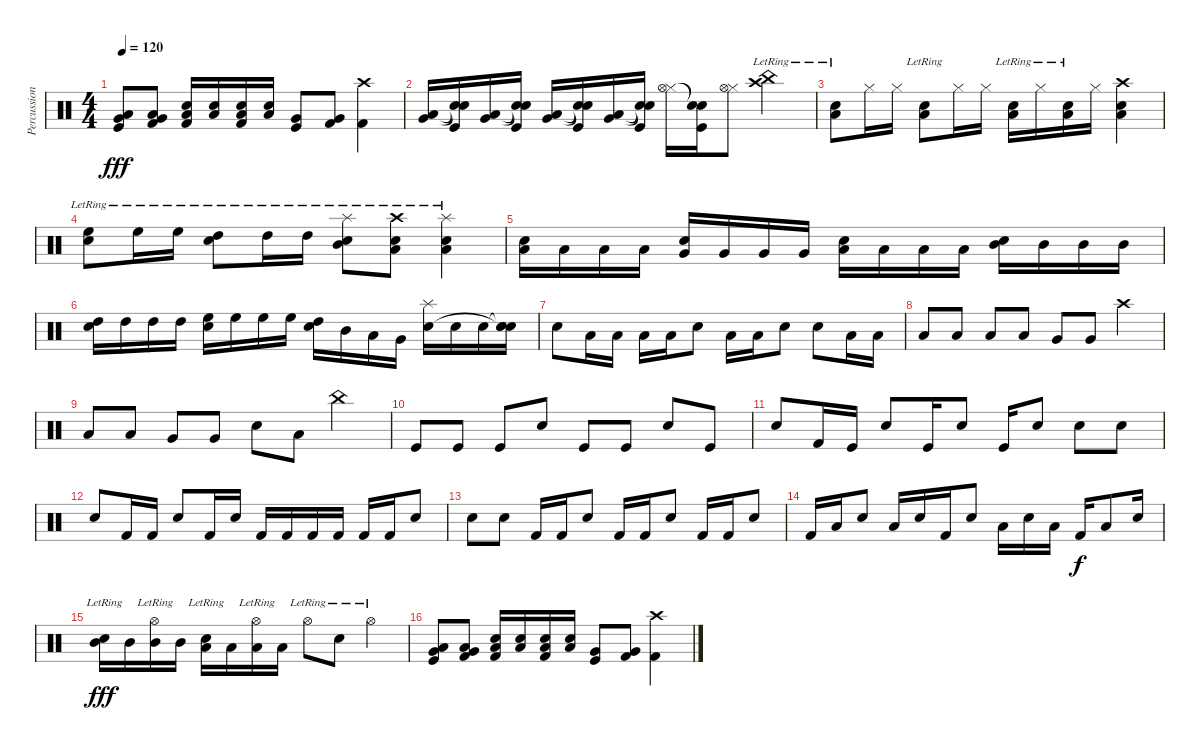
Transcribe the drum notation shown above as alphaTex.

\track ("Percussion" "Percussion") {instrument percussion}
\staff {score}
\articulation defaults
\ts (4 4)
\tempo 120
\clef neutral
\ks c
("Low Floor Tom (hit)" "Very Low Tom (hit)" "Kick (hit)").8{dy fff} ("Low Floor Tom (hit)" "Very Low Tom (hit)" "Kick (hit) 2").8 ("Low Tom (hit)" "Snare (hit) 2" "Kick (hit) 2").16 ("Low Tom (hit)" "Snare (hit) 2").16 ("Low Tom (hit)" "Snare (hit) 2" "Kick (hit) 2").16 ("Low Tom (hit)" "Snare (hit) 2").16 ("Very Low Tom (hit)" "Kick (hit)").8 ("Very Low Tom (hit)" "Kick (hit) 2").8 ("Crash high (hit)" "Kick (hit) 2").4 |
("Low Floor Tom (hit)" "Very Low Tom (hit)").16 ("Snare (hit)"{t} "Snare (hit)"{t} "Kick (hit)").16 ("Low Floor Tom (hit)" "Very Low Tom (hit)").16 ("Snare (hit)"{t} "Snare (hit)"{t} "Kick (hit)").16 ("Low Floor Tom (hit)" "Very Low Tom (hit)").16 ("Snare (hit)"{t} "Snare (hit)"{t} "Kick (hit)").16 ("Low Floor Tom (hit)" "Very Low Tom (hit)").16 ("Snare (hit)"{t} "Snare (hit)"{t} "Kick (hit)").16 ("Hi-Hat (closed)" "Hi-Hat (open)").16 ("Snare (hit)"{t} "Snare (hit)"{t} "Kick (hit)").16 ("Hi-Hat (closed)" "Hi-Hat (open)").8 ("Crash high (hit)"{lr} "China (hit)"{lr}).4 |
("Low Tom (hit)"{lr} "Snare (hit) 2").8 "Hi-Hat (closed)".16 "Hi-Hat (closed)".16 ("Low Tom (hit)"{lr} "Snare (hit) 2").8 "Hi-Hat (closed)".16 "Hi-Hat (closed)".16 ("Low Tom (hit)"{lr} "Snare (hit) 2").16 "Hi-Hat (closed)"{lr}.16 ("Low Tom (hit)"{lr} "Snare (hit) 2").16 "Hi-Hat (closed)".16 ("Crash high (hit)" "Low Tom (hit)" "Snare (hit) 2").4 |
("High Floor Tom (hit)"{lr} "Snare (hit) 2").8 "High Floor Tom (hit)"{lr}.16 "High Floor Tom (hit)"{lr}.16 ("High Tom (hit)"{lr} "Snare (hit) 2").8 "High Tom (hit)"{lr}.16 "High Tom (hit)"{lr}.16 ("Splash (hit)" "Mid Tom (hit)"{lr} "Snare (hit) 2").8 ("Crash high (hit)" "Low Tom (hit)"{lr} "Snare (hit) 2").8 ("Splash (hit)" "Low Floor Tom (hit)"{lr} "Snare (hit) 2").4 |
("Low Floor Tom (hit)" "Snare (hit) 2").16 "Low Floor Tom (hit)".16 "Low Floor Tom (hit)".16 "Low Floor Tom (hit)".16 ("Very Low Tom (hit)" "Snare (hit) 2").16 "Very Low Tom (hit)".16 "Very Low Tom (hit)".16 "Very Low Tom (hit)".16 ("Low Tom (hit)" "Snare (hit) 2").16 "Low Tom (hit)".16 "Low Tom (hit)".16 "Low Tom (hit)".16 ("Mid Tom (hit)" "Snare (hit) 2").16 "Mid Tom (hit)".16 "Mid Tom (hit)".16 "Mid Tom (hit)".16 |
("High Tom (hit)" "Snare (hit) 2").16 "High Tom (hit)".16 "High Tom (hit)".16 "High Tom (hit)".16 ("High Floor Tom (hit)" "Snare (hit) 2").16 "High Floor Tom (hit)".16 "High Floor Tom (hit)".16 "High Floor Tom (hit)".16 ("High Tom (hit)" "Snare (hit) 2").16 "Mid Tom (hit)".16 "Low Tom (hit)".16 "Very Low Tom (hit)".16 ("Splash (hit)" "Snare (hit) 2").16 "Snare (hit) 2".16 "Snare (hit) 2".16 ("Snare (hit)"{t} "Snare (hit)"{t} "Snare (hit) 2").16 |
"Snare (hit) 2".8 "Low Tom (hit)".16 "Low Tom (hit)".16 "Low Tom (hit)".16 "Low Tom (hit)".16 "Snare (hit) 2".8 "Low Tom (hit)".16 "Low Tom (hit)".16 "Snare (hit) 2".8 "Snare (hit) 2".8 "Low Tom (hit)".16 "Low Tom (hit)".16 |
"Low Floor Tom (hit)".8 "Low Floor Tom (hit)".8 "Low Floor Tom (hit)".8 "Low Floor Tom (hit)".8 "Very Low Tom (hit)".8 "Very Low Tom (hit)".8 "Crash high (hit)".4 |
"Low Tom (hit)".8 "Low Tom (hit)".8 "Very Low Tom (hit)".8 "Very Low Tom (hit)".8 "Snare (hit) 2".8 "Low Floor Tom (hit)".8 "China (hit)".4 |
"Kick (hit)".8 "Kick (hit)".8 "Kick (hit)".8 "Snare (hit) 2".8 "Kick (hit)".8 "Kick (hit)".8 "Snare (hit) 2".8 "Kick (hit)".8 |
"Snare (hit) 2".8 "Kick (hit) 2".16 "Kick (hit)".16 "Snare (hit) 2".8 "Kick (hit)".16 "Snare (hit) 2".8 "Kick (hit)".16 "Snare (hit) 2".8 "Snare (hit) 2".8 "Snare (hit) 2".8 |
"Snare (hit) 2".8 "Kick (hit) 2".16 "Kick (hit) 2".16 "Snare (hit) 2".8 "Kick (hit) 2".16 "Snare (hit) 2".16 "Kick (hit) 2".16 "Kick (hit) 2".16 "Kick (hit) 2".16 "Kick (hit) 2".16 "Kick (hit) 2".16 "Kick (hit) 2".16 "Snare (hit) 2".8 |
"Snare (hit) 2".8 "Snare (hit) 2".8 "Kick (hit) 2".16 "Kick (hit) 2".16 "Snare (hit) 2".8 "Kick (hit) 2".16 "Kick (hit) 2".16 "Snare (hit) 2".8 "Kick (hit) 2".16 "Kick (hit) 2".16 "Snare (hit) 2".8 |
"Kick (hit) 2".16 "Low Floor Tom (hit)".16 "Snare (hit) 2".8 "Low Floor Tom (hit)".16 "Snare (hit) 2".16 "Kick (hit) 2".16 "Snare (hit) 2".8 "Low Floor Tom (hit)".16 "Snare (hit) 2".16 "Low Floor Tom (hit)".16 "Kick (hit) 2".16{dy f} "Low Floor Tom (hit)".8 "Snare (hit) 2".16 |
("Mid Tom (hit)" "Snare (hit) 2"{lr}).16{dy fff} "Mid Tom (hit)".16 ("Mid Tom (hit)" "Hi-Hat (open)"{lr}).16 "Mid Tom (hit)".16 ("Low Tom (hit)" "Snare (hit) 2"{lr}).16 "Low Tom (hit)".16 ("Low Tom (hit)" "Hi-Hat (open)"{lr}).16 "Low Tom (hit)".16 "Hi-Hat (open)"{lr}.8 "Snare (hit) 2"{lr}.8 "Hi-Hat (open)"{lr}.4 |
("Low Floor Tom (hit)" "Very Low Tom (hit)" "Kick (hit)").8 ("Low Floor Tom (hit)" "Very Low Tom (hit)" "Kick (hit) 2").8 ("Low Tom (hit)" "Snare (hit) 2" "Kick (hit) 2").16 ("Low Tom (hit)" "Snare (hit) 2").16 ("Low Tom (hit)" "Snare (hit) 2" "Kick (hit) 2").16 ("Low Tom (hit)" "Snare (hit) 2").16 ("Very Low Tom (hit)" "Kick (hit)").8 ("Very Low Tom (hit)" "Kick (hit) 2").8 ("Crash high (hit)" "Kick (hit) 2").4
